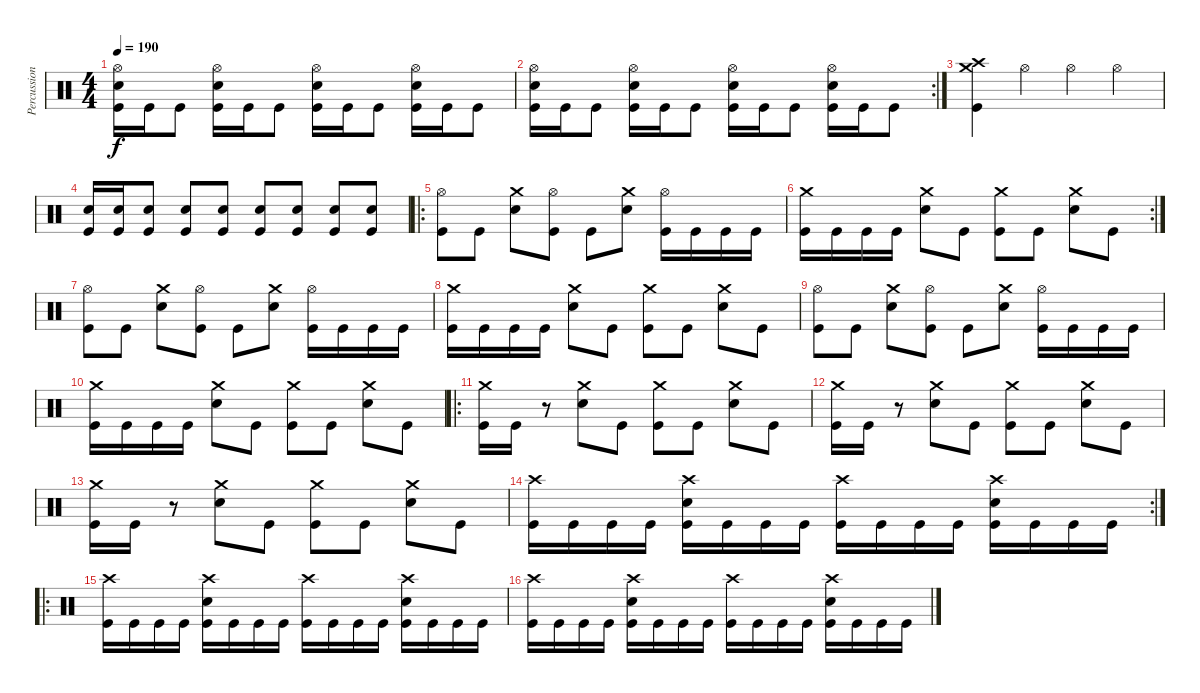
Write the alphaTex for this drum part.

\track ("Percussion" "Percussion") {instrument percussion}
\staff {score}
\articulation defaults
\ts (4 4)
\tempo 190
\clef neutral
\ks c
("Hi-Hat (open)" "Snare (hit) 2" "Kick (hit)").16{dy f} "Kick (hit)".16 "Kick (hit)".8 ("Hi-Hat (open)" "Snare (hit) 2" "Kick (hit)").16 "Kick (hit)".16 "Kick (hit)".8 ("Hi-Hat (open)" "Snare (hit) 2" "Kick (hit)").16 "Kick (hit)".16 "Kick (hit)".8 ("Hi-Hat (open)" "Snare (hit) 2" "Kick (hit)").16 "Kick (hit)".16 "Kick (hit)".8 |
\rc 2
("Hi-Hat (open)" "Snare (hit) 2" "Kick (hit)").16 "Kick (hit)".16 "Kick (hit)".8 ("Hi-Hat (open)" "Snare (hit) 2" "Kick (hit)").16 "Kick (hit)".16 "Kick (hit)".8 ("Hi-Hat (open)" "Snare (hit) 2" "Kick (hit)").16 "Kick (hit)".16 "Kick (hit)".8 ("Hi-Hat (open)" "Snare (hit) 2" "Kick (hit)").16 "Kick (hit)".16 "Kick (hit)".8 |
("Crash medium (hit)" "Crash high (hit)" "Kick (hit)").4 "Hi-Hat (open)".4 "Hi-Hat (open)".4 "Hi-Hat (open)".4 |
("Snare (hit) 2" "Kick (hit)").16 ("Snare (hit) 2" "Kick (hit)").16 ("Snare (hit) 2" "Kick (hit)").8 ("Snare (hit) 2" "Kick (hit)").8 ("Snare (hit) 2" "Kick (hit)").8 ("Snare (hit) 2" "Kick (hit)").8 ("Snare (hit) 2" "Kick (hit)").8 ("Snare (hit) 2" "Kick (hit)").8 ("Snare (hit) 2" "Kick (hit)").8 |
\ro
("Hi-Hat (open)" "Kick (hit)").8 "Kick (hit)".8 ("Crash medium (hit)" "Snare (hit) 2").8 ("Hi-Hat (open)" "Kick (hit)").8 "Kick (hit)".8 ("Crash medium (hit)" "Snare (hit) 2").8 ("Hi-Hat (open)" "Kick (hit)").16 "Kick (hit)".16 "Kick (hit)".16 "Kick (hit)".16 |
\rc 2
("Crash medium (hit)" "Kick (hit)").16 "Kick (hit)".16 "Kick (hit)".16 "Kick (hit)".16 ("Crash medium (hit)" "Snare (hit) 2").8 "Kick (hit)".8 ("Crash medium (hit)" "Kick (hit)").8 "Kick (hit)".8 ("Crash medium (hit)" "Snare (hit) 2").8 "Kick (hit)".8 |
("Hi-Hat (open)" "Kick (hit)").8 "Kick (hit)".8 ("Crash medium (hit)" "Snare (hit) 2").8 ("Hi-Hat (open)" "Kick (hit)").8 "Kick (hit)".8 ("Crash medium (hit)" "Snare (hit) 2").8 ("Hi-Hat (open)" "Kick (hit)").16 "Kick (hit)".16 "Kick (hit)".16 "Kick (hit)".16 |
("Crash medium (hit)" "Kick (hit)").16 "Kick (hit)".16 "Kick (hit)".16 "Kick (hit)".16 ("Crash medium (hit)" "Snare (hit) 2").8 "Kick (hit)".8 ("Crash medium (hit)" "Kick (hit)").8 "Kick (hit)".8 ("Crash medium (hit)" "Snare (hit) 2").8 "Kick (hit)".8 |
("Hi-Hat (open)" "Kick (hit)").8 "Kick (hit)".8 ("Crash medium (hit)" "Snare (hit) 2").8 ("Hi-Hat (open)" "Kick (hit)").8 "Kick (hit)".8 ("Crash medium (hit)" "Snare (hit) 2").8 ("Hi-Hat (open)" "Kick (hit)").16 "Kick (hit)".16 "Kick (hit)".16 "Kick (hit)".16 |
("Crash medium (hit)" "Kick (hit)").16 "Kick (hit)".16 "Kick (hit)".16 "Kick (hit)".16 ("Crash medium (hit)" "Snare (hit) 2").8 "Kick (hit)".8 ("Crash medium (hit)" "Kick (hit)").8 "Kick (hit)".8 ("Crash medium (hit)" "Snare (hit) 2").8 "Kick (hit)".8 |
\ro
("Crash medium (hit)" "Kick (hit)").16 "Kick (hit)".16 r.8 ("Crash medium (hit)" "Snare (hit) 2").8 "Kick (hit)".8 ("Crash medium (hit)" "Kick (hit)").8 "Kick (hit)".8 ("Crash medium (hit)" "Snare (hit) 2").8 "Kick (hit)".8 |
("Crash medium (hit)" "Kick (hit)").16 "Kick (hit)".16 r.8 ("Crash medium (hit)" "Snare (hit) 2").8 "Kick (hit)".8 ("Crash medium (hit)" "Kick (hit)").8 "Kick (hit)".8 ("Crash medium (hit)" "Snare (hit) 2").8 "Kick (hit)".8 |
("Crash medium (hit)" "Kick (hit)").16 "Kick (hit)".16 r.8 ("Crash medium (hit)" "Snare (hit) 2").8 "Kick (hit)".8 ("Crash medium (hit)" "Kick (hit)").8 "Kick (hit)".8 ("Crash medium (hit)" "Snare (hit) 2").8 "Kick (hit)".8 |
\rc 2
("Crash high (hit)" "Kick (hit)").16 "Kick (hit)".16 "Kick (hit)".16 "Kick (hit)".16 ("Crash high (hit)" "Snare (hit) 2" "Kick (hit)").16 "Kick (hit)".16 "Kick (hit)".16 "Kick (hit)".16 ("Crash high (hit)" "Kick (hit)").16 "Kick (hit)".16 "Kick (hit)".16 "Kick (hit)".16 ("Crash high (hit)" "Snare (hit) 2" "Kick (hit)").16 "Kick (hit)".16 "Kick (hit)".16 "Kick (hit)".16 |
\ro
("Crash high (hit)" "Kick (hit)").16 "Kick (hit)".16 "Kick (hit)".16 "Kick (hit)".16 ("Crash high (hit)" "Snare (hit) 2" "Kick (hit)").16 "Kick (hit)".16 "Kick (hit)".16 "Kick (hit)".16 ("Crash high (hit)" "Kick (hit)").16 "Kick (hit)".16 "Kick (hit)".16 "Kick (hit)".16 ("Crash high (hit)" "Snare (hit) 2" "Kick (hit)").16 "Kick (hit)".16 "Kick (hit)".16 "Kick (hit)".16 |
("Crash high (hit)" "Kick (hit)").16 "Kick (hit)".16 "Kick (hit)".16 "Kick (hit)".16 ("Crash high (hit)" "Snare (hit) 2" "Kick (hit)").16 "Kick (hit)".16 "Kick (hit)".16 "Kick (hit)".16 ("Crash high (hit)" "Kick (hit)").16 "Kick (hit)".16 "Kick (hit)".16 "Kick (hit)".16 ("Crash high (hit)" "Snare (hit) 2" "Kick (hit)").16 "Kick (hit)".16 "Kick (hit)".16 "Kick (hit)".16
